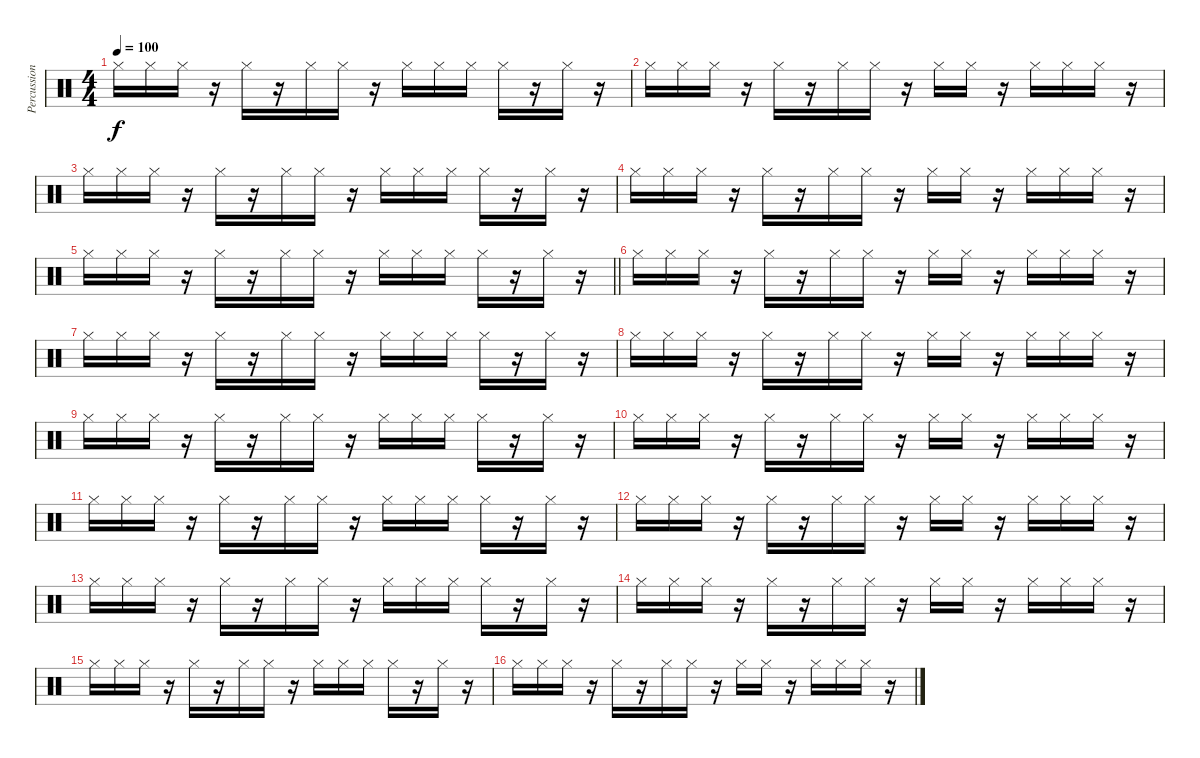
\track ("Percussion" "Percussion") {instrument percussion}
\staff {score}
\articulation defaults
\ts (4 4)
\tempo 100
\clef neutral
\ks c "Hi-Hat (closed)".16{dy f} "Hi-Hat (closed)".16 "Hi-Hat (closed)".16
r.16 "Hi-Hat (closed)".16 r.16 "Hi-Hat (closed)".16 "Hi-Hat (closed)".16 r.16 "Hi-Hat (closed)".16 "Hi-Hat (closed)".16 "Hi-Hat (closed)".16 "Hi-Hat (closed)".16 r.16 "Hi-Hat (closed)".16 r.16 |
"Hi-Hat (closed)".16 "Hi-Hat (closed)".16 "Hi-Hat (closed)".16 r.16 "Hi-Hat (closed)".16 r.16 "Hi-Hat (closed)".16 "Hi-Hat (closed)".16 r.16 "Hi-Hat (closed)".16 "Hi-Hat (closed)".16 r.16 "Hi-Hat (closed)".16 "Hi-Hat (closed)".16 "Hi-Hat (closed)".16 r.16 |
"Hi-Hat (closed)".16 "Hi-Hat (closed)".16 "Hi-Hat (closed)".16 r.16 "Hi-Hat (closed)".16 r.16 "Hi-Hat (closed)".16 "Hi-Hat (closed)".16 r.16 "Hi-Hat (closed)".16 "Hi-Hat (closed)".16 "Hi-Hat (closed)".16 "Hi-Hat (closed)".16 r.16 "Hi-Hat (closed)".16 r.16 |
"Hi-Hat (closed)".16 "Hi-Hat (closed)".16 "Hi-Hat (closed)".16 r.16 "Hi-Hat (closed)".16 r.16 "Hi-Hat (closed)".16 "Hi-Hat (closed)".16 r.16 "Hi-Hat (closed)".16 "Hi-Hat (closed)".16 r.16 "Hi-Hat (closed)".16 "Hi-Hat (closed)".16 "Hi-Hat (closed)".16 r.16 |
\barLineRight lightlight "Hi-Hat (closed)".16 "Hi-Hat (closed)".16 "Hi-Hat (closed)".16
r.16 "Hi-Hat (closed)".16 r.16 "Hi-Hat (closed)".16 "Hi-Hat (closed)".16 r.16 "Hi-Hat (closed)".16 "Hi-Hat (closed)".16 "Hi-Hat (closed)".16 "Hi-Hat (closed)".16 r.16 "Hi-Hat (closed)".16 r.16 |
"Hi-Hat (closed)".16 "Hi-Hat (closed)".16 "Hi-Hat (closed)".16 r.16 "Hi-Hat (closed)".16 r.16 "Hi-Hat (closed)".16 "Hi-Hat (closed)".16 r.16 "Hi-Hat (closed)".16 "Hi-Hat (closed)".16 r.16 "Hi-Hat (closed)".16 "Hi-Hat (closed)".16 "Hi-Hat (closed)".16 r.16 |
"Hi-Hat (closed)".16 "Hi-Hat (closed)".16 "Hi-Hat (closed)".16 r.16 "Hi-Hat (closed)".16 r.16 "Hi-Hat (closed)".16 "Hi-Hat (closed)".16 r.16 "Hi-Hat (closed)".16 "Hi-Hat (closed)".16 "Hi-Hat (closed)".16 "Hi-Hat (closed)".16 r.16 "Hi-Hat (closed)".16 r.16 |
"Hi-Hat (closed)".16 "Hi-Hat (closed)".16 "Hi-Hat (closed)".16 r.16 "Hi-Hat (closed)".16 r.16 "Hi-Hat (closed)".16 "Hi-Hat (closed)".16 r.16 "Hi-Hat (closed)".16 "Hi-Hat (closed)".16 r.16 "Hi-Hat (closed)".16 "Hi-Hat (closed)".16 "Hi-Hat (closed)".16 r.16 |
"Hi-Hat (closed)".16 "Hi-Hat (closed)".16 "Hi-Hat (closed)".16 r.16 "Hi-Hat (closed)".16 r.16 "Hi-Hat (closed)".16 "Hi-Hat (closed)".16 r.16 "Hi-Hat (closed)".16 "Hi-Hat (closed)".16 "Hi-Hat (closed)".16 "Hi-Hat (closed)".16 r.16 "Hi-Hat (closed)".16 r.16 |
"Hi-Hat (closed)".16 "Hi-Hat (closed)".16 "Hi-Hat (closed)".16 r.16 "Hi-Hat (closed)".16 r.16 "Hi-Hat (closed)".16 "Hi-Hat (closed)".16 r.16 "Hi-Hat (closed)".16 "Hi-Hat (closed)".16 r.16 "Hi-Hat (closed)".16 "Hi-Hat (closed)".16 "Hi-Hat (closed)".16 r.16 |
"Hi-Hat (closed)".16 "Hi-Hat (closed)".16 "Hi-Hat (closed)".16 r.16 "Hi-Hat (closed)".16 r.16 "Hi-Hat (closed)".16 "Hi-Hat (closed)".16 r.16 "Hi-Hat (closed)".16 "Hi-Hat (closed)".16 "Hi-Hat (closed)".16 "Hi-Hat (closed)".16 r.16 "Hi-Hat (closed)".16 r.16 |
"Hi-Hat (closed)".16 "Hi-Hat (closed)".16 "Hi-Hat (closed)".16 r.16 "Hi-Hat (closed)".16 r.16 "Hi-Hat (closed)".16 "Hi-Hat (closed)".16 r.16 "Hi-Hat (closed)".16 "Hi-Hat (closed)".16 r.16 "Hi-Hat (closed)".16 "Hi-Hat (closed)".16 "Hi-Hat (closed)".16 r.16 |
"Hi-Hat (closed)".16 "Hi-Hat (closed)".16 "Hi-Hat (closed)".16 r.16 "Hi-Hat (closed)".16 r.16 "Hi-Hat (closed)".16 "Hi-Hat (closed)".16 r.16 "Hi-Hat (closed)".16 "Hi-Hat (closed)".16 "Hi-Hat (closed)".16 "Hi-Hat (closed)".16 r.16 "Hi-Hat (closed)".16 r.16 |
"Hi-Hat (closed)".16 "Hi-Hat (closed)".16 "Hi-Hat (closed)".16 r.16 "Hi-Hat (closed)".16 r.16 "Hi-Hat (closed)".16 "Hi-Hat (closed)".16 r.16 "Hi-Hat (closed)".16 "Hi-Hat (closed)".16 r.16 "Hi-Hat (closed)".16 "Hi-Hat (closed)".16 "Hi-Hat (closed)".16 r.16 |
"Hi-Hat (closed)".16 "Hi-Hat (closed)".16 "Hi-Hat (closed)".16 r.16 "Hi-Hat (closed)".16 r.16 "Hi-Hat (closed)".16 "Hi-Hat (closed)".16 r.16 "Hi-Hat (closed)".16 "Hi-Hat (closed)".16 "Hi-Hat (closed)".16 "Hi-Hat (closed)".16 r.16 "Hi-Hat (closed)".16 r.16 |
"Hi-Hat (closed)".16 "Hi-Hat (closed)".16 "Hi-Hat (closed)".16 r.16 "Hi-Hat (closed)".16 r.16 "Hi-Hat (closed)".16 "Hi-Hat (closed)".16 r.16 "Hi-Hat (closed)".16 "Hi-Hat (closed)".16 r.16 "Hi-Hat (closed)".16 "Hi-Hat (closed)".16 "Hi-Hat (closed)".16 r.16
